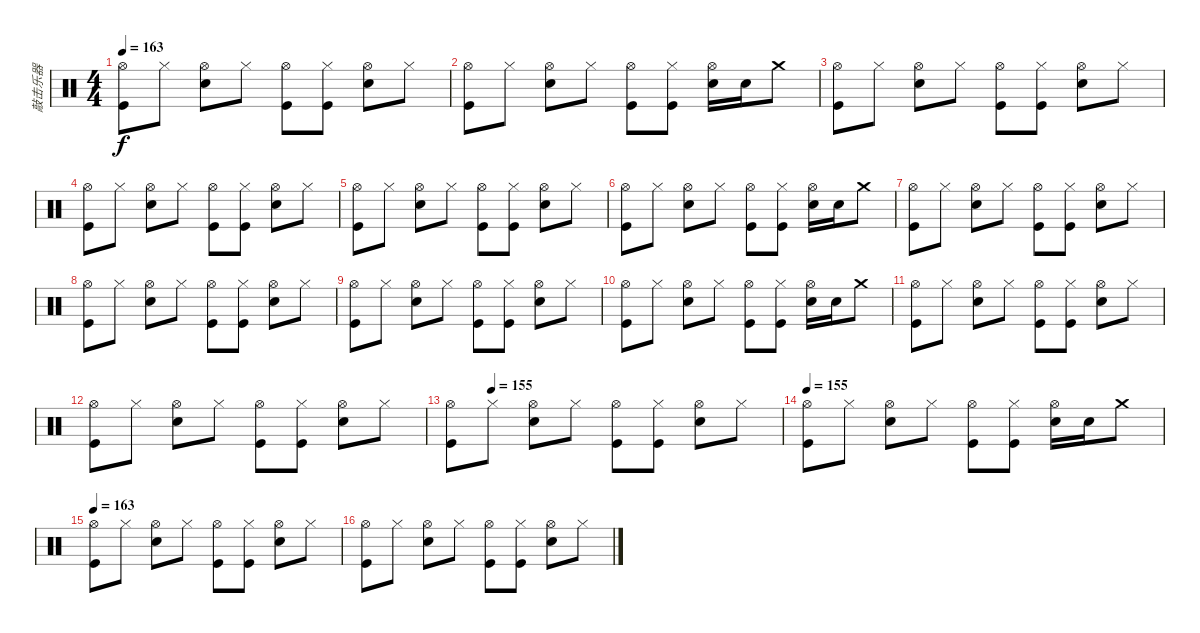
\track ("敲击乐器" "敲击乐器") {instrument percussion}
\staff {score}
\articulation defaults
\ts (4 4)
\tempo 163
\clef neutral
\ks c
("Hi-Hat (open)" "Kick (hit)").8{dy f} "Hi-Hat (closed)".8 ("Hi-Hat (open)" "Snare (hit) 2").8 "Hi-Hat (closed)".8 ("Hi-Hat (open)" "Kick (hit)").8 ("Hi-Hat (closed)" "Kick (hit)").8 ("Hi-Hat (open)" "Snare (hit) 2").8 "Hi-Hat (closed)".8 |
("Hi-Hat (open)" "Kick (hit)").8 "Hi-Hat (closed)".8 ("Hi-Hat (open)" "Snare (hit) 2").8 "Hi-Hat (closed)".8 ("Hi-Hat (open)" "Kick (hit)").8 ("Hi-Hat (closed)" "Kick (hit)").8 ("Hi-Hat (open)" "Snare (hit) 2").16 "Snare (hit) 2".16 "Crash medium (hit)".8 |
("Hi-Hat (open)" "Kick (hit)").8 "Hi-Hat (closed)".8 ("Hi-Hat (open)" "Snare (hit) 2").8 "Hi-Hat (closed)".8 ("Hi-Hat (open)" "Kick (hit)").8 ("Hi-Hat (closed)" "Kick (hit)").8 ("Hi-Hat (open)" "Snare (hit) 2").8 "Hi-Hat (closed)".8 |
("Hi-Hat (open)" "Kick (hit)").8 "Hi-Hat (closed)".8 ("Hi-Hat (open)" "Snare (hit) 2").8 "Hi-Hat (closed)".8 ("Hi-Hat (open)" "Kick (hit)").8 ("Hi-Hat (closed)" "Kick (hit)").8 ("Hi-Hat (open)" "Snare (hit) 2").8 "Hi-Hat (closed)".8 |
("Hi-Hat (open)" "Kick (hit)").8 "Hi-Hat (closed)".8 ("Hi-Hat (open)" "Snare (hit) 2").8 "Hi-Hat (closed)".8 ("Hi-Hat (open)" "Kick (hit)").8 ("Hi-Hat (closed)" "Kick (hit)").8 ("Hi-Hat (open)" "Snare (hit) 2").8 "Hi-Hat (closed)".8 |
("Hi-Hat (open)" "Kick (hit)").8 "Hi-Hat (closed)".8 ("Hi-Hat (open)" "Snare (hit) 2").8 "Hi-Hat (closed)".8 ("Hi-Hat (open)" "Kick (hit)").8 ("Hi-Hat (closed)" "Kick (hit)").8 ("Hi-Hat (open)" "Snare (hit) 2").16 "Snare (hit) 2".16 "Crash medium (hit)".8 |
("Hi-Hat (open)" "Kick (hit)").8 "Hi-Hat (closed)".8 ("Hi-Hat (open)" "Snare (hit) 2").8 "Hi-Hat (closed)".8 ("Hi-Hat (open)" "Kick (hit)").8 ("Hi-Hat (closed)" "Kick (hit)").8 ("Hi-Hat (open)" "Snare (hit) 2").8 "Hi-Hat (closed)".8 |
("Hi-Hat (open)" "Kick (hit)").8 "Hi-Hat (closed)".8 ("Hi-Hat (open)" "Snare (hit) 2").8 "Hi-Hat (closed)".8 ("Hi-Hat (open)" "Kick (hit)").8 ("Hi-Hat (closed)" "Kick (hit)").8 ("Hi-Hat (open)" "Snare (hit) 2").8 "Hi-Hat (closed)".8 |
("Hi-Hat (open)" "Kick (hit)").8 "Hi-Hat (closed)".8 ("Hi-Hat (open)" "Snare (hit) 2").8 "Hi-Hat (closed)".8 ("Hi-Hat (open)" "Kick (hit)").8 ("Hi-Hat (closed)" "Kick (hit)").8 ("Hi-Hat (open)" "Snare (hit) 2").8 "Hi-Hat (closed)".8 |
("Hi-Hat (open)" "Kick (hit)").8 "Hi-Hat (closed)".8 ("Hi-Hat (open)" "Snare (hit) 2").8 "Hi-Hat (closed)".8 ("Hi-Hat (open)" "Kick (hit)").8 ("Hi-Hat (closed)" "Kick (hit)").8 ("Hi-Hat (open)" "Snare (hit) 2").16 "Snare (hit) 2".16 "Crash medium (hit)".8 |
("Hi-Hat (open)" "Kick (hit)").8 "Hi-Hat (closed)".8 ("Hi-Hat (open)" "Snare (hit) 2").8 "Hi-Hat (closed)".8 ("Hi-Hat (open)" "Kick (hit)").8 ("Hi-Hat (closed)" "Kick (hit)").8 ("Hi-Hat (open)" "Snare (hit) 2").8 "Hi-Hat (closed)".8 |
("Hi-Hat (open)" "Kick (hit)").8 "Hi-Hat (closed)".8 ("Hi-Hat (open)" "Snare (hit) 2").8 "Hi-Hat (closed)".8 ("Hi-Hat (open)" "Kick (hit)").8 ("Hi-Hat (closed)" "Kick (hit)").8 ("Hi-Hat (open)" "Snare (hit) 2").8 "Hi-Hat (closed)".8 |
\tempo (155 0.125)
("Hi-Hat (open)" "Kick (hit)").8 "Hi-Hat (closed)".8 ("Hi-Hat (open)" "Snare (hit) 2").8 "Hi-Hat (closed)".8 ("Hi-Hat (open)" "Kick (hit)").8 ("Hi-Hat (closed)" "Kick (hit)").8 ("Hi-Hat (open)" "Snare (hit) 2").8 "Hi-Hat (closed)".8 |
\tempo 155
("Hi-Hat (open)" "Kick (hit)").8 "Hi-Hat (closed)".8 ("Hi-Hat (open)" "Snare (hit) 2").8 "Hi-Hat (closed)".8 ("Hi-Hat (open)" "Kick (hit)").8 ("Hi-Hat (closed)" "Kick (hit)").8 ("Hi-Hat (open)" "Snare (hit) 2").16 "Snare (hit) 2".16 "Crash medium (hit)".8 |
\tempo 163
("Hi-Hat (open)" "Kick (hit)").8 "Hi-Hat (closed)".8 ("Hi-Hat (open)" "Snare (hit) 2").8 "Hi-Hat (closed)".8 ("Hi-Hat (open)" "Kick (hit)").8 ("Hi-Hat (closed)" "Kick (hit)").8 ("Hi-Hat (open)" "Snare (hit) 2").8 "Hi-Hat (closed)".8 |
("Hi-Hat (open)" "Kick (hit)").8 "Hi-Hat (closed)".8 ("Hi-Hat (open)" "Snare (hit) 2").8 "Hi-Hat (closed)".8 ("Hi-Hat (open)" "Kick (hit)").8 ("Hi-Hat (closed)" "Kick (hit)").8 ("Hi-Hat (open)" "Snare (hit) 2").8 "Hi-Hat (closed)".8
